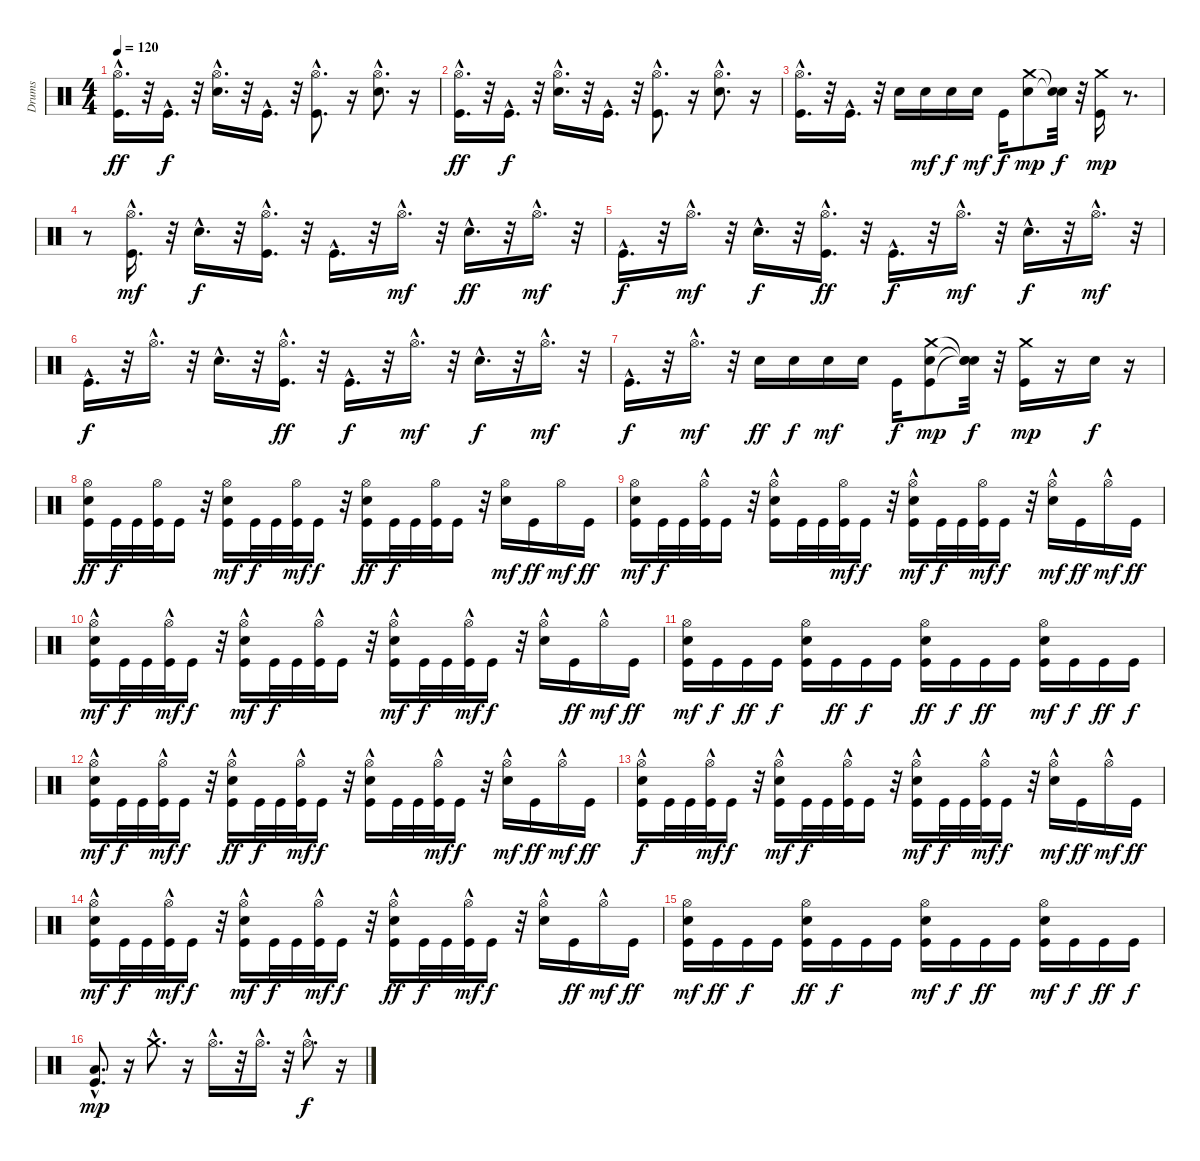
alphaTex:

\track ("Drums" "Drums") {instrument percussion}
\staff {score}
\articulation defaults
\ts (4 4)
\tempo 120
\clef neutral
\ks c
("Hi-Hat (open)"{hac} "Kick (hit)"{hac}).16{d dy ff} r.32 "Kick (hit)"{hac}.16{d dy f} r.32 ("Hi-Hat (open)"{hac} "Electric Snare (hit)"{hac}).16{d} r.32 "Kick (hit)"{hac}.16{d} r.32 ("Hi-Hat (open)"{hac} "Kick (hit)"{hac}).8{d} r.16 ("Hi-Hat (open)"{hac} "Electric Snare (hit)"{hac}).8{d} r.16 |
("Hi-Hat (open)"{hac} "Kick (hit)"{hac}).16{d dy ff} r.32 "Kick (hit)"{hac}.16{d dy f} r.32 ("Hi-Hat (open)"{hac} "Electric Snare (hit)"{hac}).16{d} r.32 "Kick (hit)"{hac}.16{d} r.32 ("Hi-Hat (open)"{hac} "Kick (hit)"{hac}).8{d} r.16 ("Hi-Hat (open)"{hac} "Electric Snare (hit)"{hac}).8{d} r.16 |
("Hi-Hat (open)"{hac} "Kick (hit)"{hac}).16{d} r.32 "Kick (hit)"{hac}.16{d} r.32 "Electric Snare (hit)".16 "Electric Snare (hit)".16{dy mf} "Electric Snare (hit)".16{dy f} "Electric Snare (hit)".16{dy mf} "Kick (hit)".16{dy f} ("Electric Snare (hit)" "Crash medium (hit)").8{dy mp} ("Snare (hit)"{t} "Snare (hit)"{t}).32{dy f} r.32 ("Kick (hit)" "Crash medium (hit)").16{dy mp} r.8{d} |
r.8 ("Hi-Hat (open)"{hac} "Kick (hit)"{hac}).16{d dy mf} r.32 "Electric Snare (hit)"{hac}.16{d dy f} r.32 ("Hi-Hat (open)"{hac} "Kick (hit)"{hac}).16{d} r.32 "Kick (hit)"{hac}.16{d} r.32 "Hi-Hat (open)"{hac}.16{d dy mf} r.32 "Electric Snare (hit)"{hac}.16{d dy ff} r.32 "Hi-Hat (open)"{hac}.16{d dy mf} r.32 |
"Kick (hit)"{hac}.16{d dy f} r.32 "Hi-Hat (open)"{hac}.16{d dy mf} r.32 "Electric Snare (hit)"{hac}.16{d dy f} r.32 ("Hi-Hat (open)"{hac} "Kick (hit)"{hac}).16{d dy ff} r.32 "Kick (hit)"{hac}.16{d dy f} r.32 "Hi-Hat (open)"{hac}.16{d dy mf} r.32 "Electric Snare (hit)"{hac}.16{d dy f} r.32 "Hi-Hat (open)"{hac}.16{d dy mf} r.32 |
"Kick (hit)"{hac}.16{d dy f} r.32 "Hi-Hat (open)"{hac}.16{d} r.32 "Electric Snare (hit)"{hac}.16{d} r.32 ("Hi-Hat (open)"{hac} "Kick (hit)"{hac}).16{d dy ff} r.32 "Kick (hit)"{hac}.16{d dy f} r.32 "Hi-Hat (open)"{hac}.16{d dy mf} r.32 "Electric Snare (hit)"{hac}.16{d dy f} r.32 "Hi-Hat (open)"{hac}.16{d dy mf} r.32 |
"Kick (hit)"{hac}.16{d dy f} r.32 "Hi-Hat (open)"{hac}.16{d dy mf} r.32 "Electric Snare (hit)".16{dy ff} "Electric Snare (hit)".16{dy f} "Electric Snare (hit)".16{dy mf} "Electric Snare (hit)".16 "Kick (hit)".16{dy f} ("Electric Snare (hit)" "Kick (hit)" "Crash medium (hit)").8{dy mp} ("Snare (hit)"{t} "Snare (hit)"{t} "Snare (hit)"{t}).32{dy f} r.32 ("Kick (hit)" "Crash medium (hit)").16{dy mp} r.16 "Electric Snare (hit)".16{dy f} r.16 |
("Hi-Hat (open)" "Electric Snare (hit)" "Kick (hit)").16{dy ff} "Kick (hit)".32{dy f} "Kick (hit)".32 ("Hi-Hat (open)" "Kick (hit)").32 "Kick (hit)".16 r.32 ("Hi-Hat (open)" "Electric Snare (hit)" "Kick (hit)").16{dy mf} "Kick (hit)".32{dy f} "Kick (hit)".32 ("Hi-Hat (open)" "Kick (hit)").32{dy mf} "Kick (hit)".16{dy f} r.32 ("Hi-Hat (open)" "Electric Snare (hit)" "Kick (hit)").16{dy ff} "Kick (hit)".32{dy f} "Kick (hit)".32 ("Hi-Hat (open)" "Kick (hit)").32 "Kick (hit)".16 r.32 ("Hi-Hat (open)" "Electric Snare (hit)").16{dy mf} "Kick (hit)".16{dy ff} "Hi-Hat (open)".16{dy mf} "Kick (hit)".16{dy ff} |
("Hi-Hat (open)" "Electric Snare (hit)" "Kick (hit)").16{dy mf} "Kick (hit)".32{dy f} "Kick (hit)".32 ("Hi-Hat (open)"{hac} "Kick (hit)").32 "Kick (hit)".16 r.32 ("Hi-Hat (open)"{hac} "Electric Snare (hit)" "Kick (hit)").16 "Kick (hit)".32 "Kick (hit)".32 ("Hi-Hat (open)" "Kick (hit)").32{dy mf} "Kick (hit)".16{dy f} r.32 ("Hi-Hat (open)"{hac} "Electric Snare (hit)" "Kick (hit)").16{dy mf} "Kick (hit)".32{dy f} "Kick (hit)".32 ("Hi-Hat (open)" "Kick (hit)").32{dy mf} "Kick (hit)".16{dy f} r.32 ("Hi-Hat (open)"{hac} "Electric Snare (hit)"{hac}).16{dy mf} "Kick (hit)".16{dy ff} "Hi-Hat (open)"{hac}.16{dy mf} "Kick (hit)".16{dy ff} |
("Hi-Hat (open)"{hac} "Electric Snare (hit)"{hac} "Kick (hit)").16{dy mf} "Kick (hit)".32{dy f} "Kick (hit)".32 ("Hi-Hat (open)"{hac} "Kick (hit)").32{dy mf} "Kick (hit)".16{dy f} r.32 ("Hi-Hat (open)"{hac} "Electric Snare (hit)"{hac} "Kick (hit)").16{dy mf} "Kick (hit)".32{dy f} "Kick (hit)".32 ("Hi-Hat (open)"{hac} "Kick (hit)").32 "Kick (hit)".16 r.32 ("Hi-Hat (open)"{hac} "Electric Snare (hit)"{hac} "Kick (hit)").16{dy mf} "Kick (hit)".32{dy f} "Kick (hit)".32 ("Hi-Hat (open)"{hac} "Kick (hit)").32{dy mf} "Kick (hit)".16{dy f} r.32 ("Hi-Hat (open)"{hac} "Electric Snare (hit)"{hac}).16 "Kick (hit)".16{dy ff} "Hi-Hat (open)"{hac}.16{dy mf} "Kick (hit)".16{dy ff} |
("Hi-Hat (open)" "Electric Snare (hit)" "Kick (hit)").16{dy mf} "Kick (hit)".16{dy f} "Kick (hit)".16{dy ff} "Kick (hit)".16{dy f} ("Hi-Hat (open)" "Electric Snare (hit)" "Kick (hit)").16 "Kick (hit)".16{dy ff} "Kick (hit)".16{dy f} "Kick (hit)".16 ("Hi-Hat (open)" "Electric Snare (hit)" "Kick (hit)").16{dy ff} "Kick (hit)".16{dy f} "Kick (hit)".16{dy ff} "Kick (hit)".16 ("Hi-Hat (open)" "Electric Snare (hit)" "Kick (hit)").16{dy mf} "Kick (hit)".16{dy f} "Kick (hit)".16{dy ff} "Kick (hit)".16{dy f} |
("Hi-Hat (open)"{hac} "Electric Snare (hit)"{hac} "Kick (hit)").16{dy mf} "Kick (hit)".32{dy f} "Kick (hit)".32 ("Hi-Hat (open)"{hac} "Kick (hit)").32{dy mf} "Kick (hit)".16{dy f} r.32 ("Hi-Hat (open)"{hac} "Electric Snare (hit)"{hac} "Kick (hit)").16{dy ff} "Kick (hit)".32{dy f} "Kick (hit)".32 ("Hi-Hat (open)"{hac} "Kick (hit)").32{dy mf} "Kick (hit)".16{dy f} r.32 ("Hi-Hat (open)"{hac} "Electric Snare (hit)"{hac} "Kick (hit)").16 "Kick (hit)".32 "Kick (hit)".32 ("Hi-Hat (open)"{hac} "Kick (hit)").32{dy mf} "Kick (hit)".16{dy f} r.32 ("Hi-Hat (open)"{hac} "Electric Snare (hit)"{hac}).16{dy mf} "Kick (hit)".16{dy ff} "Hi-Hat (open)"{hac}.16{dy mf} "Kick (hit)".16{dy ff} |
("Hi-Hat (open)"{hac} "Electric Snare (hit)"{hac} "Kick (hit)").16{dy f} "Kick (hit)".32 "Kick (hit)".32 ("Hi-Hat (open)"{hac} "Kick (hit)").32{dy mf} "Kick (hit)".16{dy f} r.32 ("Hi-Hat (open)"{hac} "Electric Snare (hit)"{hac} "Kick (hit)").16{dy mf} "Kick (hit)".32{dy f} "Kick (hit)".32 ("Hi-Hat (open)"{hac} "Kick (hit)").32 "Kick (hit)".16 r.32 ("Hi-Hat (open)"{hac} "Electric Snare (hit)"{hac} "Kick (hit)").16{dy mf} "Kick (hit)".32{dy f} "Kick (hit)".32 ("Hi-Hat (open)"{hac} "Kick (hit)").32{dy mf} "Kick (hit)".16{dy f} r.32 ("Hi-Hat (open)"{hac} "Electric Snare (hit)"{hac}).16{dy mf} "Kick (hit)".16{dy ff} "Hi-Hat (open)"{hac}.16{dy mf} "Kick (hit)".16{dy ff} |
("Hi-Hat (open)"{hac} "Electric Snare (hit)"{hac} "Kick (hit)").16{dy mf} "Kick (hit)".32{dy f} "Kick (hit)".32 ("Hi-Hat (open)"{hac} "Kick (hit)").32{dy mf} "Kick (hit)".16{dy f} r.32 ("Hi-Hat (open)"{hac} "Electric Snare (hit)"{hac} "Kick (hit)").16{dy mf} "Kick (hit)".32{dy f} "Kick (hit)".32 ("Hi-Hat (open)"{hac} "Kick (hit)").32{dy mf} "Kick (hit)".16{dy f} r.32 ("Hi-Hat (open)"{hac} "Electric Snare (hit)"{hac} "Kick (hit)").16{dy ff} "Kick (hit)".32{dy f} "Kick (hit)".32 ("Hi-Hat (open)"{hac} "Kick (hit)").32{dy mf} "Kick (hit)".16{dy f} r.32 ("Hi-Hat (open)"{hac} "Electric Snare (hit)"{hac}).16 "Kick (hit)".16{dy ff} "Hi-Hat (open)"{hac}.16{dy mf} "Kick (hit)".16{dy ff} |
("Hi-Hat (open)" "Electric Snare (hit)" "Kick (hit)").16{dy mf} "Kick (hit)".16{dy ff} "Kick (hit)".16{dy f} "Kick (hit)".16 ("Hi-Hat (open)" "Electric Snare (hit)" "Kick (hit)").16{dy ff} "Kick (hit)".16{dy f} "Kick (hit)".16 "Kick (hit)".16 ("Hi-Hat (open)" "Electric Snare (hit)" "Kick (hit)").16{dy mf} "Kick (hit)".16{dy f} "Kick (hit)".16{dy ff} "Kick (hit)".16 ("Hi-Hat (open)" "Electric Snare (hit)" "Kick (hit)").16{dy mf} "Kick (hit)".16{dy f} "Kick (hit)".16{dy ff} "Kick (hit)".16{dy f} |
("Kick (hit)"{hac} "Low Floor Tom (hit)"{hac}).8{d dy mp} r.16 "Crash medium (hit)"{hac}.8{d} r.16 "Hi-Hat (open)"{hac}.16{d} r.32 "Hi-Hat (open)"{hac}.16{d} r.32 "Hi-Hat (open)"{hac}.8{d dy f} r.16
